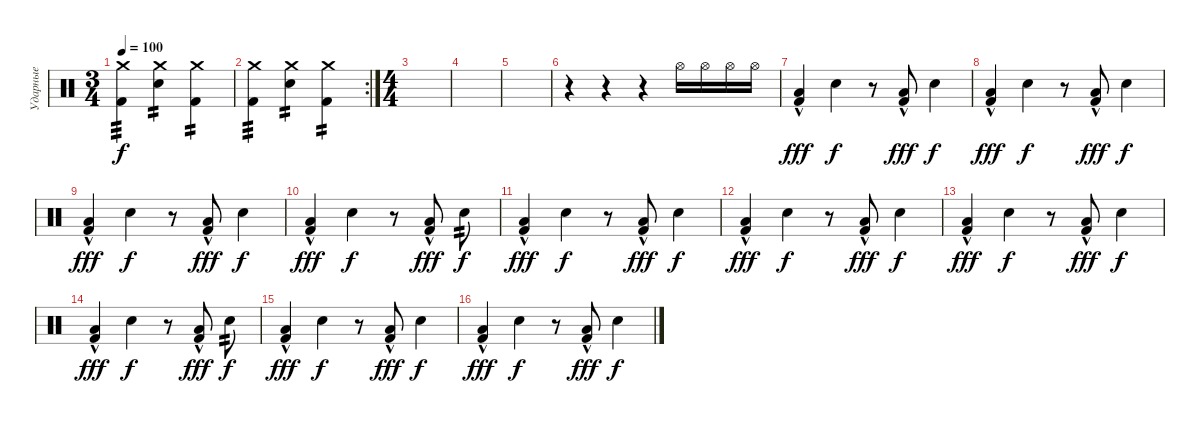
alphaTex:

\track ("Ударные" "Ударные") {instrument percussion}
\staff {score}
\articulation defaults
\ts (3 4)
\tempo 100
\clef neutral
\ks c
("Kick (hit) 2" "Crash medium (hit)").4{tp 3 dy f} ("Snare (hit) 2" "Crash medium (hit)").4{tp 2} ("Kick (hit) 2" "Crash medium (hit)").4{tp 2} |
\rc 2
("Kick (hit) 2" "Crash medium (hit)").4{tp 3} ("Snare (hit) 2" "Crash medium (hit)").4{tp 2} ("Kick (hit) 2" "Crash medium (hit)").4{tp 2} |
\ts (4 4)
|
|
|
r.4 r.4 r.4 "Hi-Hat (open)".16 "Hi-Hat (open)".16 "Hi-Hat (open)".16 "Hi-Hat (open)".16 |
("Low Floor Tom (hit)" "Kick (hit) 2"{hac}).4{dy fff} "Electric Snare (hit)".4{dy f} r.8 ("Low Floor Tom (hit)" "Kick (hit) 2"{hac}).8{dy fff} "Electric Snare (hit)".4{dy f} |
("Low Floor Tom (hit)" "Kick (hit) 2"{hac}).4{dy fff} "Electric Snare (hit)".4{dy f} r.8 ("Low Floor Tom (hit)" "Kick (hit) 2"{hac}).8{dy fff} "Electric Snare (hit)".4{dy f} |
("Low Floor Tom (hit)" "Kick (hit) 2"{hac}).4{dy fff} "Electric Snare (hit)".4{dy f} r.8 ("Low Floor Tom (hit)" "Kick (hit) 2"{hac}).8{dy fff} "Electric Snare (hit)".4{dy f} |
("Low Floor Tom (hit)" "Kick (hit) 2"{hac}).4{dy fff} "Electric Snare (hit)".4{dy f} r.8 ("Low Floor Tom (hit)" "Kick (hit) 2"{hac}).8{dy fff} "Electric Snare (hit)".8{tp 2 dy f} |
("Low Floor Tom (hit)" "Kick (hit) 2"{hac}).4{dy fff} "Electric Snare (hit)".4{dy f} r.8 ("Low Floor Tom (hit)" "Kick (hit) 2"{hac}).8{dy fff} "Electric Snare (hit)".4{dy f} |
("Low Floor Tom (hit)" "Kick (hit) 2"{hac}).4{dy fff} "Electric Snare (hit)".4{dy f} r.8 ("Low Floor Tom (hit)" "Kick (hit) 2"{hac}).8{dy fff} "Electric Snare (hit)".4{dy f} |
("Low Floor Tom (hit)" "Kick (hit) 2"{hac}).4{dy fff} "Electric Snare (hit)".4{dy f} r.8 ("Low Floor Tom (hit)" "Kick (hit) 2"{hac}).8{dy fff} "Electric Snare (hit)".4{dy f} |
("Low Floor Tom (hit)" "Kick (hit) 2"{hac}).4{dy fff} "Electric Snare (hit)".4{dy f} r.8 ("Low Floor Tom (hit)" "Kick (hit) 2"{hac}).8{dy fff} "Electric Snare (hit)".8{tp 2 dy f} |
("Low Floor Tom (hit)" "Kick (hit) 2"{hac}).4{dy fff} "Electric Snare (hit)".4{dy f} r.8 ("Low Floor Tom (hit)" "Kick (hit) 2"{hac}).8{dy fff} "Electric Snare (hit)".4{dy f} |
("Low Floor Tom (hit)" "Kick (hit) 2"{hac}).4{dy fff} "Electric Snare (hit)".4{dy f} r.8 ("Low Floor Tom (hit)" "Kick (hit) 2"{hac}).8{dy fff} "Electric Snare (hit)".4{dy f}
